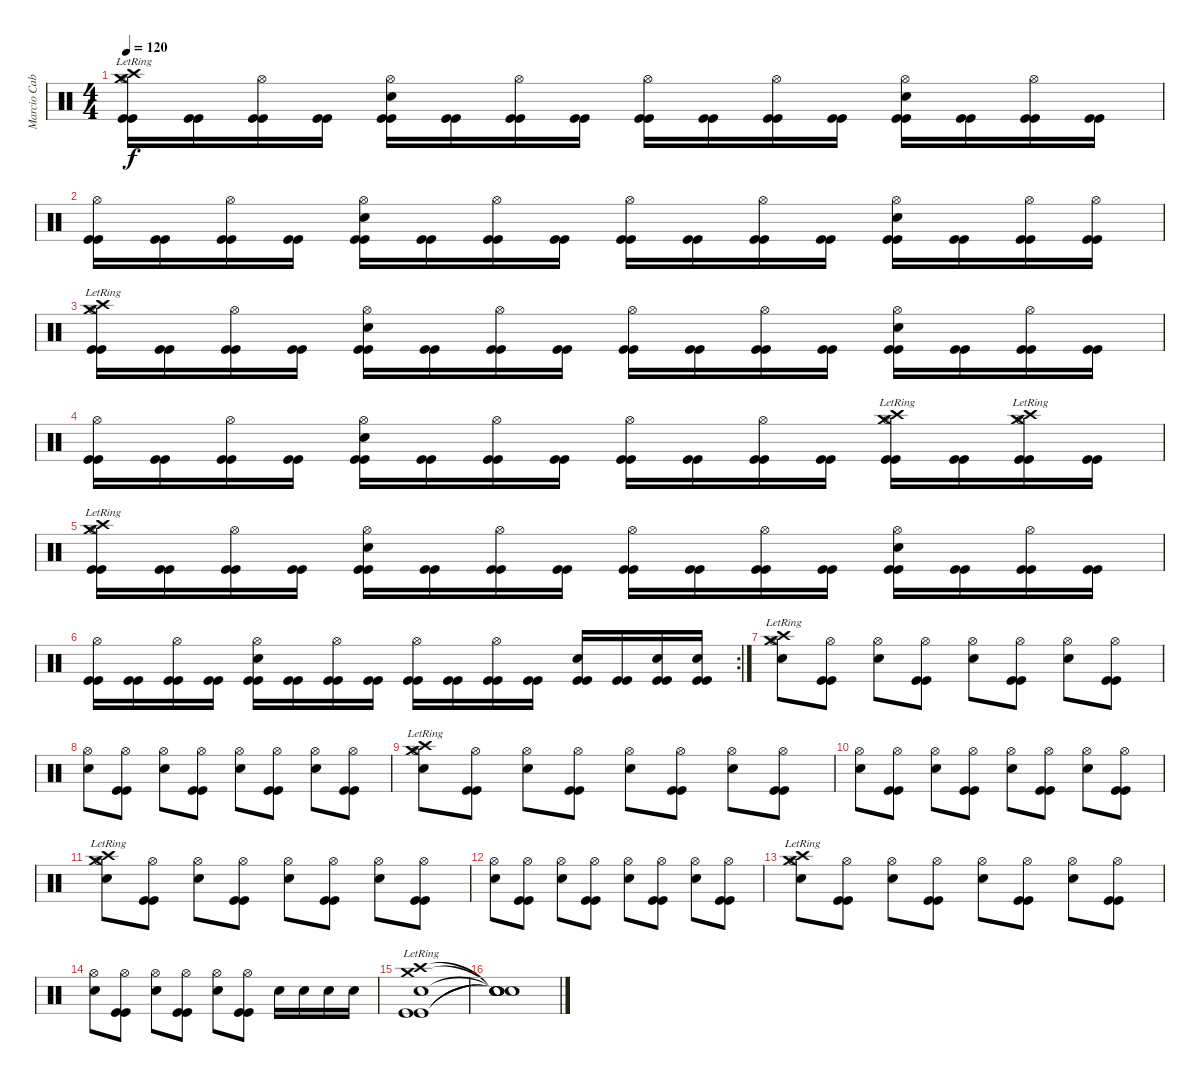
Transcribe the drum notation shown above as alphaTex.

\track ("Marcio Cabrita" "Marcio Cab") {instrument percussion}
\staff {score}
\articulation defaults
\ts (4 4)
\tempo 120
\clef neutral
\ks c
("Crash high (hit)"{lr} "Crash medium (hit)"{lr} "Hi-Hat (open)" "Kick (hit)" "Kick (hit)").16{dy f} ("Kick (hit)" "Kick (hit)").16 ("Hi-Hat (open)" "Kick (hit)" "Kick (hit)").16 ("Kick (hit)" "Kick (hit)").16 ("Snare (hit) 2" "Hi-Hat (open)" "Kick (hit)" "Kick (hit)").16 ("Kick (hit)" "Kick (hit)").16 ("Hi-Hat (open)" "Kick (hit)" "Kick (hit)").16 ("Kick (hit)" "Kick (hit)").16 ("Hi-Hat (open)" "Kick (hit)" "Kick (hit)").16 ("Kick (hit)" "Kick (hit)").16 ("Hi-Hat (open)" "Kick (hit)" "Kick (hit)").16 ("Kick (hit)" "Kick (hit)").16 ("Snare (hit) 2" "Hi-Hat (open)" "Kick (hit)" "Kick (hit)").16 ("Kick (hit)" "Kick (hit)").16 ("Hi-Hat (open)" "Kick (hit)" "Kick (hit)").16 ("Kick (hit)" "Kick (hit)").16 |
("Hi-Hat (open)" "Kick (hit)" "Kick (hit)").16 ("Kick (hit)" "Kick (hit)").16 ("Hi-Hat (open)" "Kick (hit)" "Kick (hit)").16 ("Kick (hit)" "Kick (hit)").16 ("Snare (hit) 2" "Hi-Hat (open)" "Kick (hit)" "Kick (hit)").16 ("Kick (hit)" "Kick (hit)").16 ("Hi-Hat (open)" "Kick (hit)" "Kick (hit)").16 ("Kick (hit)" "Kick (hit)").16 ("Hi-Hat (open)" "Kick (hit)" "Kick (hit)").16 ("Kick (hit)" "Kick (hit)").16 ("Hi-Hat (open)" "Kick (hit)" "Kick (hit)").16 ("Kick (hit)" "Kick (hit)").16 ("Snare (hit) 2" "Hi-Hat (open)" "Kick (hit)" "Kick (hit)").16 ("Kick (hit)" "Kick (hit)").16 ("Hi-Hat (open)" "Kick (hit)" "Kick (hit)").16 ("Hi-Hat (open)" "Kick (hit)" "Kick (hit)").16 |
("Crash high (hit)"{lr} "Crash medium (hit)"{lr} "Hi-Hat (open)" "Kick (hit)" "Kick (hit)").16 ("Kick (hit)" "Kick (hit)").16 ("Hi-Hat (open)" "Kick (hit)" "Kick (hit)").16 ("Kick (hit)" "Kick (hit)").16 ("Snare (hit) 2" "Hi-Hat (open)" "Kick (hit)" "Kick (hit)").16 ("Kick (hit)" "Kick (hit)").16 ("Hi-Hat (open)" "Kick (hit)" "Kick (hit)").16 ("Kick (hit)" "Kick (hit)").16 ("Hi-Hat (open)" "Kick (hit)" "Kick (hit)").16 ("Kick (hit)" "Kick (hit)").16 ("Hi-Hat (open)" "Kick (hit)" "Kick (hit)").16 ("Kick (hit)" "Kick (hit)").16 ("Snare (hit) 2" "Hi-Hat (open)" "Kick (hit)" "Kick (hit)").16 ("Kick (hit)" "Kick (hit)").16 ("Hi-Hat (open)" "Kick (hit)" "Kick (hit)").16 ("Kick (hit)" "Kick (hit)").16 |
("Hi-Hat (open)" "Kick (hit)" "Kick (hit)").16 ("Kick (hit)" "Kick (hit)").16 ("Hi-Hat (open)" "Kick (hit)" "Kick (hit)").16 ("Kick (hit)" "Kick (hit)").16 ("Snare (hit) 2" "Hi-Hat (open)" "Kick (hit)" "Kick (hit)").16 ("Kick (hit)" "Kick (hit)").16 ("Hi-Hat (open)" "Kick (hit)" "Kick (hit)").16 ("Kick (hit)" "Kick (hit)").16 ("Hi-Hat (open)" "Kick (hit)" "Kick (hit)").16 ("Kick (hit)" "Kick (hit)").16 ("Hi-Hat (open)" "Kick (hit)" "Kick (hit)").16 ("Kick (hit)" "Kick (hit)").16 ("Crash high (hit)"{lr} "Crash medium (hit)"{lr} "Hi-Hat (open)" "Kick (hit)" "Kick (hit)").16 ("Kick (hit)" "Kick (hit)").16 ("Crash high (hit)"{lr} "Crash medium (hit)"{lr} "Hi-Hat (open)" "Kick (hit)" "Kick (hit)").16 ("Kick (hit)" "Kick (hit)").16 |
("Crash high (hit)"{lr} "Crash medium (hit)"{lr} "Hi-Hat (open)" "Kick (hit)" "Kick (hit)").16 ("Kick (hit)" "Kick (hit)").16 ("Hi-Hat (open)" "Kick (hit)" "Kick (hit)").16 ("Kick (hit)" "Kick (hit)").16 ("Snare (hit) 2" "Hi-Hat (open)" "Kick (hit)" "Kick (hit)").16 ("Kick (hit)" "Kick (hit)").16 ("Hi-Hat (open)" "Kick (hit)" "Kick (hit)").16 ("Kick (hit)" "Kick (hit)").16 ("Hi-Hat (open)" "Kick (hit)" "Kick (hit)").16 ("Kick (hit)" "Kick (hit)").16 ("Hi-Hat (open)" "Kick (hit)" "Kick (hit)").16 ("Kick (hit)" "Kick (hit)").16 ("Snare (hit) 2" "Hi-Hat (open)" "Kick (hit)" "Kick (hit)").16 ("Kick (hit)" "Kick (hit)").16 ("Hi-Hat (open)" "Kick (hit)" "Kick (hit)").16 ("Kick (hit)" "Kick (hit)").16 |
\rc 2
("Hi-Hat (open)" "Kick (hit)" "Kick (hit)").16 ("Kick (hit)" "Kick (hit)").16 ("Hi-Hat (open)" "Kick (hit)" "Kick (hit)").16 ("Kick (hit)" "Kick (hit)").16 ("Snare (hit) 2" "Hi-Hat (open)" "Kick (hit)" "Kick (hit)").16 ("Kick (hit)" "Kick (hit)").16 ("Hi-Hat (open)" "Kick (hit)" "Kick (hit)").16 ("Kick (hit)" "Kick (hit)").16 ("Hi-Hat (open)" "Kick (hit)" "Kick (hit)").16 ("Kick (hit)" "Kick (hit)").16 ("Hi-Hat (open)" "Kick (hit)" "Kick (hit)").16 ("Kick (hit)" "Kick (hit)").16 ("Snare (hit) 2" "Kick (hit)" "Kick (hit)").16 ("Kick (hit)" "Kick (hit)").16 ("Snare (hit) 2" "Kick (hit)" "Kick (hit)").16 ("Snare (hit) 2" "Kick (hit)" "Kick (hit)").16 |
("Crash high (hit)"{lr} "Crash medium (hit)"{lr} "Snare (hit) 2" "Hi-Hat (open)").8 ("Hi-Hat (open)" "Kick (hit)" "Kick (hit)").8 ("Snare (hit) 2" "Hi-Hat (open)").8 ("Hi-Hat (open)" "Kick (hit)" "Kick (hit)").8 ("Snare (hit) 2" "Hi-Hat (open)").8 ("Hi-Hat (open)" "Kick (hit)" "Kick (hit)").8 ("Snare (hit) 2" "Hi-Hat (open)").8 ("Hi-Hat (open)" "Kick (hit)" "Kick (hit)").8 |
("Snare (hit) 2" "Hi-Hat (open)").8 ("Hi-Hat (open)" "Kick (hit)" "Kick (hit)").8 ("Snare (hit) 2" "Hi-Hat (open)").8 ("Hi-Hat (open)" "Kick (hit)" "Kick (hit)").8 ("Snare (hit) 2" "Hi-Hat (open)").8 ("Hi-Hat (open)" "Kick (hit)" "Kick (hit)").8 ("Snare (hit) 2" "Hi-Hat (open)").8 ("Hi-Hat (open)" "Kick (hit)" "Kick (hit)").8 |
("Crash high (hit)"{lr} "Crash medium (hit)"{lr} "Snare (hit) 2" "Hi-Hat (open)").8 ("Hi-Hat (open)" "Kick (hit)" "Kick (hit)").8 ("Snare (hit) 2" "Hi-Hat (open)").8 ("Hi-Hat (open)" "Kick (hit)" "Kick (hit)").8 ("Snare (hit) 2" "Hi-Hat (open)").8 ("Hi-Hat (open)" "Kick (hit)" "Kick (hit)").8 ("Snare (hit) 2" "Hi-Hat (open)").8 ("Hi-Hat (open)" "Kick (hit)" "Kick (hit)").8 |
("Snare (hit) 2" "Hi-Hat (open)").8 ("Hi-Hat (open)" "Kick (hit)" "Kick (hit)").8 ("Snare (hit) 2" "Hi-Hat (open)").8 ("Hi-Hat (open)" "Kick (hit)" "Kick (hit)").8 ("Snare (hit) 2" "Hi-Hat (open)").8 ("Hi-Hat (open)" "Kick (hit)" "Kick (hit)").8 ("Snare (hit) 2" "Hi-Hat (open)").8 ("Hi-Hat (open)" "Kick (hit)" "Kick (hit)").8 |
("Crash high (hit)"{lr} "Crash medium (hit)"{lr} "Snare (hit) 2" "Hi-Hat (open)").8 ("Hi-Hat (open)" "Kick (hit)" "Kick (hit)").8 ("Snare (hit) 2" "Hi-Hat (open)").8 ("Hi-Hat (open)" "Kick (hit)" "Kick (hit)").8 ("Snare (hit) 2" "Hi-Hat (open)").8 ("Hi-Hat (open)" "Kick (hit)" "Kick (hit)").8 ("Snare (hit) 2" "Hi-Hat (open)").8 ("Hi-Hat (open)" "Kick (hit)" "Kick (hit)").8 |
("Snare (hit) 2" "Hi-Hat (open)").8 ("Hi-Hat (open)" "Kick (hit)" "Kick (hit)").8 ("Snare (hit) 2" "Hi-Hat (open)").8 ("Hi-Hat (open)" "Kick (hit)" "Kick (hit)").8 ("Snare (hit) 2" "Hi-Hat (open)").8 ("Hi-Hat (open)" "Kick (hit)" "Kick (hit)").8 ("Snare (hit) 2" "Hi-Hat (open)").8 ("Hi-Hat (open)" "Kick (hit)" "Kick (hit)").8 |
("Crash high (hit)"{lr} "Crash medium (hit)"{lr} "Snare (hit) 2" "Hi-Hat (open)").8 ("Hi-Hat (open)" "Kick (hit)" "Kick (hit)").8 ("Snare (hit) 2" "Hi-Hat (open)").8 ("Hi-Hat (open)" "Kick (hit)" "Kick (hit)").8 ("Snare (hit) 2" "Hi-Hat (open)").8 ("Hi-Hat (open)" "Kick (hit)" "Kick (hit)").8 ("Snare (hit) 2" "Hi-Hat (open)").8 ("Hi-Hat (open)" "Kick (hit)" "Kick (hit)").8 |
("Snare (hit) 2" "Hi-Hat (open)").8 ("Hi-Hat (open)" "Kick (hit)" "Kick (hit)").8 ("Snare (hit) 2" "Hi-Hat (open)").8 ("Hi-Hat (open)" "Kick (hit)" "Kick (hit)").8 ("Snare (hit) 2" "Hi-Hat (open)").8 ("Hi-Hat (open)" "Kick (hit)" "Kick (hit)").8 "Snare (hit) 2".16 "Snare (hit) 2".16 "Snare (hit) 2".16 "Snare (hit) 2".16 |
("Crash high (hit)"{lr} "Crash medium (hit)"{lr} "Snare (hit) 2" "Kick (hit)" "Kick (hit)").1 |
("Snare (hit)"{t} "Snare (hit)"{t} "Snare (hit)"{t} "Snare (hit)"{t} "Snare (hit)"{t}).1
